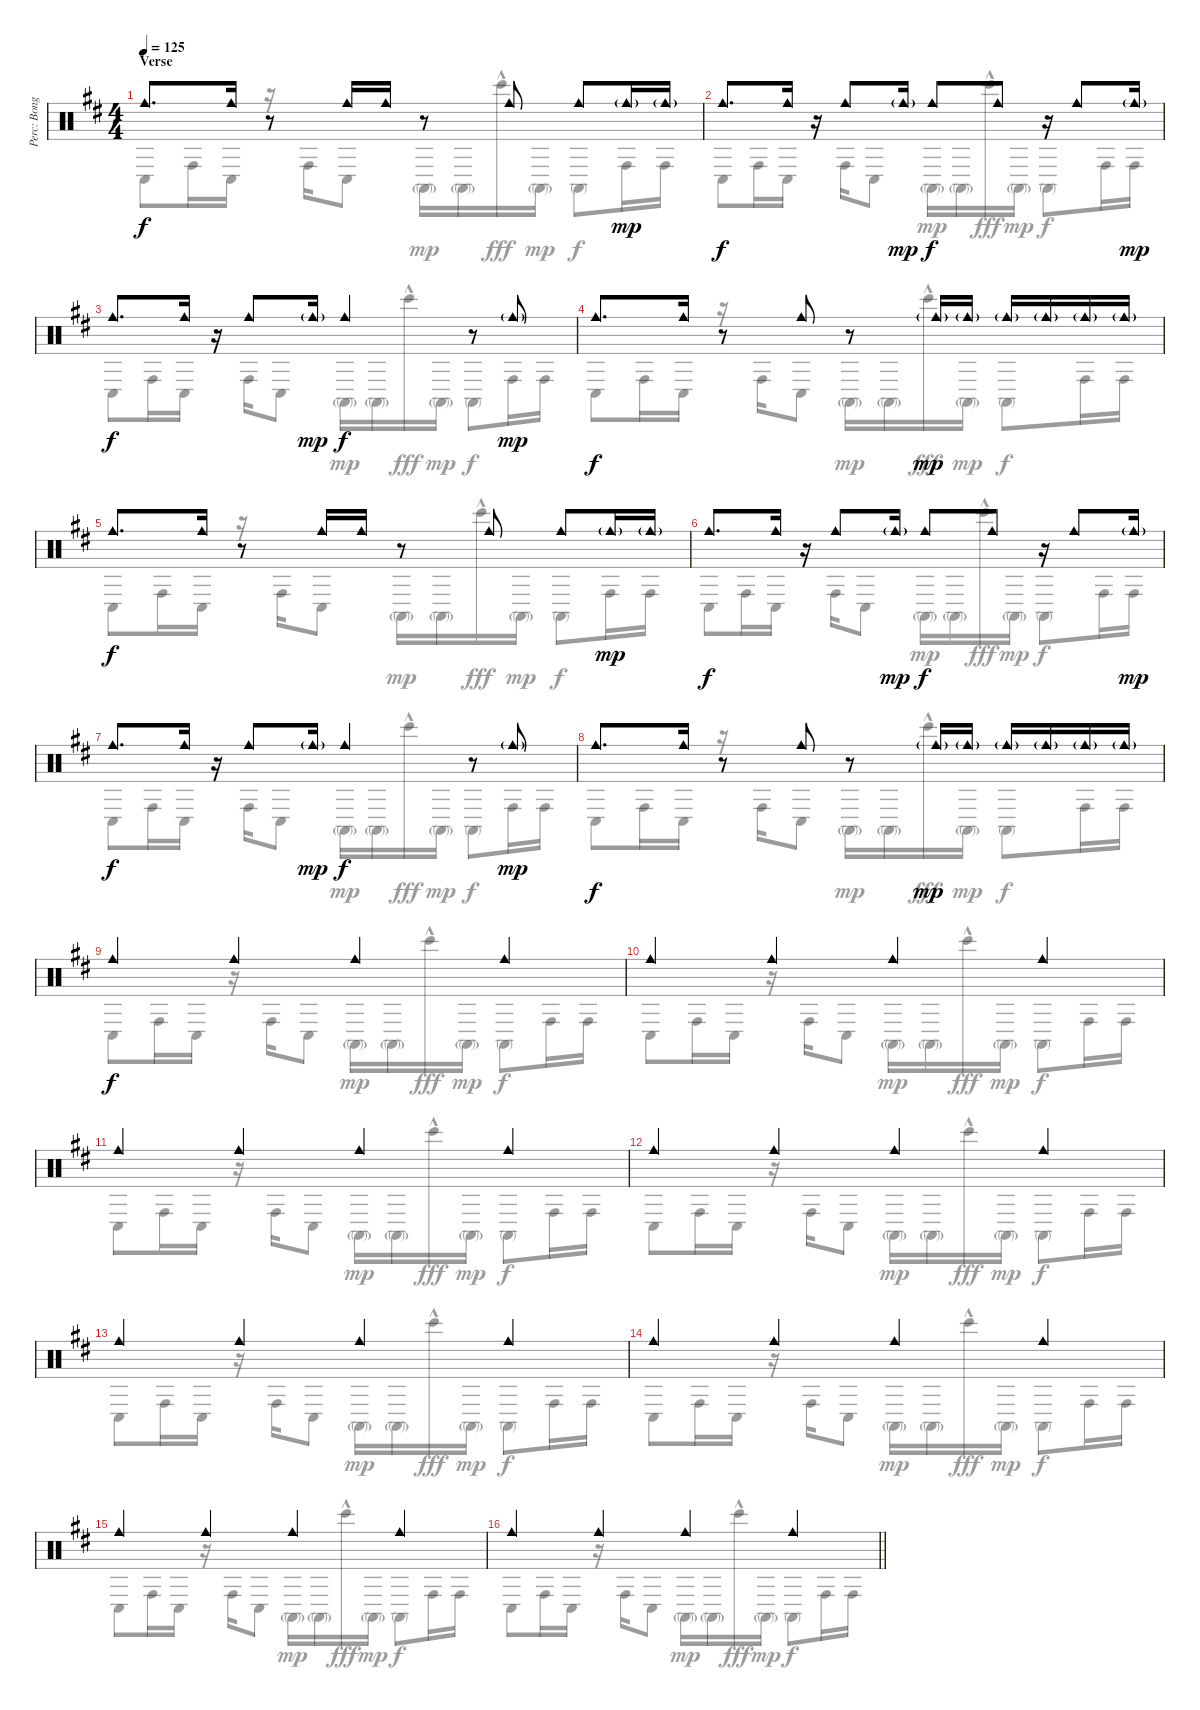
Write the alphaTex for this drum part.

\track ("Perc: Bongos + Cowbell + Triangle" "Perc: Bong") {instrument percussion}
\staff {score}
\articulation defaults
\voice
\ts (4 4)
\section ("" "Verse")
\tempo 125
\clef neutral
\ks bminor "Cowbell medium (hit)".8{d dy f} "Cowbell medium (hit)".16
r.8 "Cowbell medium (hit)".16 "Cowbell medium (hit)".16 r.8 "Cowbell medium (hit)".8 "Cowbell medium (hit)".8 "Cowbell medium (hit)"{g}.16{dy mp} "Cowbell medium (hit)"{g}.16 |
"Cowbell medium (hit)".8{d dy f} "Cowbell medium (hit)".16 r.16 "Cowbell medium (hit)".8 "Cowbell medium (hit)"{g}.16{dy mp} "Cowbell medium (hit)".8{dy f} "Cowbell medium (hit)".8 r.16 "Cowbell medium (hit)".8 "Cowbell medium (hit)"{g}.16{dy mp} |
"Cowbell medium (hit)".8{d dy f} "Cowbell medium (hit)".16 r.16 "Cowbell medium (hit)".8 "Cowbell medium (hit)"{g}.16{dy mp} "Cowbell medium (hit)".4{dy f} r.8 "Cowbell medium (hit)"{g}.8{dy mp} |
"Cowbell medium (hit)".8{d dy f} "Cowbell medium (hit)".16 r.8 "Cowbell medium (hit)".8 r.8 "Cowbell medium (hit)"{g}.16{dy mp} "Cowbell medium (hit)"{g}.16 "Cowbell medium (hit)"{g}.16 "Cowbell medium (hit)"{g}.16 "Cowbell medium (hit)"{g}.16 "Cowbell medium (hit)"{g}.16 |
"Cowbell medium (hit)".8{d dy f} "Cowbell medium (hit)".16 r.8 "Cowbell medium (hit)".16 "Cowbell medium (hit)".16 r.8 "Cowbell medium (hit)".8 "Cowbell medium (hit)".8 "Cowbell medium (hit)"{g}.16{dy mp} "Cowbell medium (hit)"{g}.16 |
"Cowbell medium (hit)".8{d dy f} "Cowbell medium (hit)".16 r.16 "Cowbell medium (hit)".8 "Cowbell medium (hit)"{g}.16{dy mp} "Cowbell medium (hit)".8{dy f} "Cowbell medium (hit)".8 r.16 "Cowbell medium (hit)".8 "Cowbell medium (hit)"{g}.16{dy mp} |
"Cowbell medium (hit)".8{d dy f} "Cowbell medium (hit)".16 r.16 "Cowbell medium (hit)".8 "Cowbell medium (hit)"{g}.16{dy mp} "Cowbell medium (hit)".4{dy f} r.8 "Cowbell medium (hit)"{g}.8{dy mp} |
"Cowbell medium (hit)".8{d dy f} "Cowbell medium (hit)".16 r.8 "Cowbell medium (hit)".8 r.8 "Cowbell medium (hit)"{g}.16{dy mp} "Cowbell medium (hit)"{g}.16 "Cowbell medium (hit)"{g}.16 "Cowbell medium (hit)"{g}.16 "Cowbell medium (hit)"{g}.16 "Cowbell medium (hit)"{g}.16 |
"Cowbell medium (hit)".4{dy f} "Cowbell medium (hit)".4 "Cowbell medium (hit)".4 "Cowbell medium (hit)".4 |
"Cowbell medium (hit)".4 "Cowbell medium (hit)".4 "Cowbell medium (hit)".4 "Cowbell medium (hit)".4 |
"Cowbell medium (hit)".4 "Cowbell medium (hit)".4 "Cowbell medium (hit)".4 "Cowbell medium (hit)".4 |
"Cowbell medium (hit)".4 "Cowbell medium (hit)".4 "Cowbell medium (hit)".4 "Cowbell medium (hit)".4 |
"Cowbell medium (hit)".4 "Cowbell medium (hit)".4 "Cowbell medium (hit)".4 "Cowbell medium (hit)".4 |
"Cowbell medium (hit)".4 "Cowbell medium (hit)".4 "Cowbell medium (hit)".4 "Cowbell medium (hit)".4 |
"Cowbell medium (hit)".4 "Cowbell medium (hit)".4 "Cowbell medium (hit)".4 "Cowbell medium (hit)".4 |
\barLineRight lightlight "Cowbell medium (hit)".4 "Cowbell medium (hit)".4 "Cowbell medium (hit)".4 "Cowbell medium (hit)".4
\voice
\clef neutral
\ottava regular
\simile none
\ks bminor "Conga low (hit)".8{dy f} "Conga high (hit)".16 "Conga low (hit)".16
r.16 "Conga high (hit)".16 "Conga low (hit)".8 "Conga high (mute)"{g}.16{dy mp} "Conga high (mute)"{g}.16 "Bongo High (hit)"{hac}.16{dy fff} "Conga high (mute)"{g}.16{dy mp} "Conga high (mute)".8{dy f} "Conga high (hit)".16 "Conga high (hit)".16 |
"Conga low (hit)".8 "Conga high (hit)".16 "Conga low (hit)".16 r.16 "Conga high (hit)".16 "Conga low (hit)".8 "Conga high (mute)"{g}.16{dy mp} "Conga high (mute)"{g}.16 "Bongo High (hit)"{hac}.16{dy fff} "Conga high (mute)"{g}.16{dy mp} "Conga high (mute)".8{dy f} "Conga high (hit)".16 "Conga high (hit)".16 |
"Conga low (hit)".8 "Conga high (hit)".16 "Conga low (hit)".16 r.16 "Conga high (hit)".16 "Conga low (hit)".8 "Conga high (mute)"{g}.16{dy mp} "Conga high (mute)"{g}.16 "Bongo High (hit)"{hac}.16{dy fff} "Conga high (mute)"{g}.16{dy mp} "Conga high (mute)".8{dy f} "Conga high (hit)".16 "Conga high (hit)".16 |
"Conga low (hit)".8 "Conga high (hit)".16 "Conga low (hit)".16 r.16 "Conga high (hit)".16 "Conga low (hit)".8 "Conga high (mute)"{g}.16{dy mp} "Conga high (mute)"{g}.16 "Bongo High (hit)"{hac}.16{dy fff} "Conga high (mute)"{g}.16{dy mp} "Conga high (mute)".8{dy f} "Conga high (hit)".16 "Conga high (hit)".16 |
"Conga low (hit)".8 "Conga high (hit)".16 "Conga low (hit)".16 r.16 "Conga high (hit)".16 "Conga low (hit)".8 "Conga high (mute)"{g}.16{dy mp} "Conga high (mute)"{g}.16 "Bongo High (hit)"{hac}.16{dy fff} "Conga high (mute)"{g}.16{dy mp} "Conga high (mute)".8{dy f} "Conga high (hit)".16 "Conga high (hit)".16 |
"Conga low (hit)".8 "Conga high (hit)".16 "Conga low (hit)".16 r.16 "Conga high (hit)".16 "Conga low (hit)".8 "Conga high (mute)"{g}.16{dy mp} "Conga high (mute)"{g}.16 "Bongo High (hit)"{hac}.16{dy fff} "Conga high (mute)"{g}.16{dy mp} "Conga high (mute)".8{dy f} "Conga high (hit)".16 "Conga high (hit)".16 |
"Conga low (hit)".8 "Conga high (hit)".16 "Conga low (hit)".16 r.16 "Conga high (hit)".16 "Conga low (hit)".8 "Conga high (mute)"{g}.16{dy mp} "Conga high (mute)"{g}.16 "Bongo High (hit)"{hac}.16{dy fff} "Conga high (mute)"{g}.16{dy mp} "Conga high (mute)".8{dy f} "Conga high (hit)".16 "Conga high (hit)".16 |
"Conga low (hit)".8 "Conga high (hit)".16 "Conga low (hit)".16 r.16 "Conga high (hit)".16 "Conga low (hit)".8 "Conga high (mute)"{g}.16{dy mp} "Conga high (mute)"{g}.16 "Bongo High (hit)"{hac}.16{dy fff} "Conga high (mute)"{g}.16{dy mp} "Conga high (mute)".8{dy f} "Conga high (hit)".16 "Conga high (hit)".16 |
"Conga low (hit)".8 "Conga high (hit)".16 "Conga low (hit)".16 r.16 "Conga high (hit)".16 "Conga low (hit)".8 "Conga high (mute)"{g}.16{dy mp} "Conga high (mute)"{g}.16 "Bongo High (hit)"{hac}.16{dy fff} "Conga high (mute)"{g}.16{dy mp} "Conga high (mute)".8{dy f} "Conga high (hit)".16 "Conga high (hit)".16 |
"Conga low (hit)".8 "Conga high (hit)".16 "Conga low (hit)".16 r.16 "Conga high (hit)".16 "Conga low (hit)".8 "Conga high (mute)"{g}.16{dy mp} "Conga high (mute)"{g}.16 "Bongo High (hit)"{hac}.16{dy fff} "Conga high (mute)"{g}.16{dy mp} "Conga high (mute)".8{dy f} "Conga high (hit)".16 "Conga high (hit)".16 |
"Conga low (hit)".8 "Conga high (hit)".16 "Conga low (hit)".16 r.16 "Conga high (hit)".16 "Conga low (hit)".8 "Conga high (mute)"{g}.16{dy mp} "Conga high (mute)"{g}.16 "Bongo High (hit)"{hac}.16{dy fff} "Conga high (mute)"{g}.16{dy mp} "Conga high (mute)".8{dy f} "Conga high (hit)".16 "Conga high (hit)".16 |
"Conga low (hit)".8 "Conga high (hit)".16 "Conga low (hit)".16 r.16 "Conga high (hit)".16 "Conga low (hit)".8 "Conga high (mute)"{g}.16{dy mp} "Conga high (mute)"{g}.16 "Bongo High (hit)"{hac}.16{dy fff} "Conga high (mute)"{g}.16{dy mp} "Conga high (mute)".8{dy f} "Conga high (hit)".16 "Conga high (hit)".16 |
"Conga low (hit)".8 "Conga high (hit)".16 "Conga low (hit)".16 r.16 "Conga high (hit)".16 "Conga low (hit)".8 "Conga high (mute)"{g}.16{dy mp} "Conga high (mute)"{g}.16 "Bongo High (hit)"{hac}.16{dy fff} "Conga high (mute)"{g}.16{dy mp} "Conga high (mute)".8{dy f} "Conga high (hit)".16 "Conga high (hit)".16 |
"Conga low (hit)".8 "Conga high (hit)".16 "Conga low (hit)".16 r.16 "Conga high (hit)".16 "Conga low (hit)".8 "Conga high (mute)"{g}.16{dy mp} "Conga high (mute)"{g}.16 "Bongo High (hit)"{hac}.16{dy fff} "Conga high (mute)"{g}.16{dy mp} "Conga high (mute)".8{dy f} "Conga high (hit)".16 "Conga high (hit)".16 |
"Conga low (hit)".8 "Conga high (hit)".16 "Conga low (hit)".16 r.16 "Conga high (hit)".16 "Conga low (hit)".8 "Conga high (mute)"{g}.16{dy mp} "Conga high (mute)"{g}.16 "Bongo High (hit)"{hac}.16{dy fff} "Conga high (mute)"{g}.16{dy mp} "Conga high (mute)".8{dy f} "Conga high (hit)".16 "Conga high (hit)".16 |
\barLineRight lightlight "Conga low (hit)".8 "Conga high (hit)".16 "Conga low (hit)".16
r.16 "Conga high (hit)".16 "Conga low (hit)".8 "Conga high (mute)"{g}.16{dy mp} "Conga high (mute)"{g}.16 "Bongo High (hit)"{hac}.16{dy fff} "Conga high (mute)"{g}.16{dy mp} "Conga high (mute)".8{dy f} "Conga high (hit)".16 "Conga high (hit)".16
